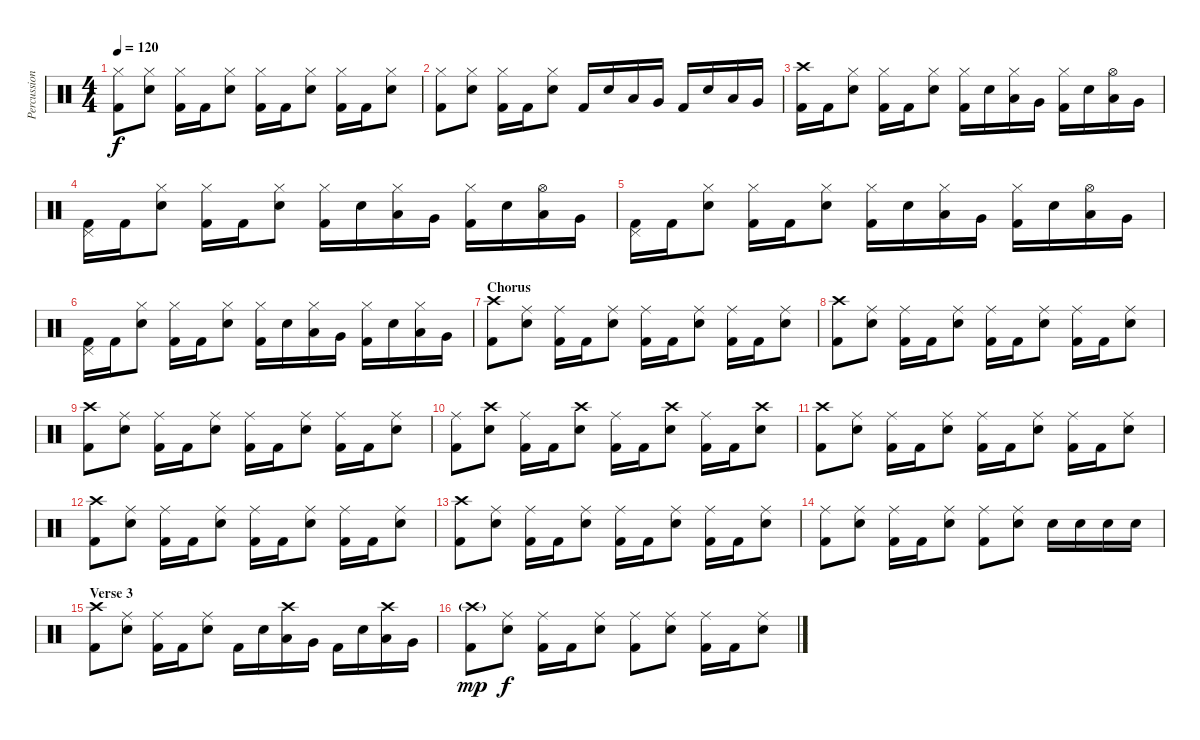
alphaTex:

\track ("Percussion" "Percussion") {instrument percussion}
\staff {score}
\articulation defaults
\ts (4 4)
\tempo 120
\clef neutral
\ks c
("Kick (hit) 2" "Hi-Hat (closed)").8{dy f} ("Snare (hit) 2" "Hi-Hat (closed)").8 ("Kick (hit) 2" "Hi-Hat (closed)").16 "Kick (hit) 2".16 ("Snare (hit) 2" "Hi-Hat (closed)").8 ("Kick (hit) 2" "Hi-Hat (closed)").16 "Kick (hit) 2".16 ("Snare (hit) 2" "Hi-Hat (closed)").8 ("Kick (hit) 2" "Hi-Hat (closed)").16 "Kick (hit) 2".16 ("Snare (hit) 2" "Hi-Hat (closed)").8 |
("Kick (hit) 2" "Hi-Hat (closed)").8 ("Snare (hit) 2" "Hi-Hat (closed)").8 ("Kick (hit) 2" "Hi-Hat (closed)").16 "Kick (hit) 2".16 ("Snare (hit) 2" "Hi-Hat (closed)").8 "Kick (hit) 2".16 "Snare (hit) 2".16 "Low Tom (hit)".16 "Very Low Tom (hit)".16 "Kick (hit) 2".16 "Snare (hit) 2".16 "Low Tom (hit)".16 "Very Low Tom (hit)".16 |
("Kick (hit) 2" "Crash high (hit)").16 "Kick (hit) 2".16 ("Snare (hit) 2" "Hi-Hat (closed)").8 ("Kick (hit) 2" "Hi-Hat (closed)").16 "Kick (hit) 2".16 ("Snare (hit) 2" "Hi-Hat (closed)").8 ("Kick (hit) 2" "Hi-Hat (closed)").16 "Snare (hit) 2".16 ("Low Tom (hit)" "Hi-Hat (closed)").16 "Very Low Tom (hit)".16 ("Kick (hit) 2" "Hi-Hat (closed)").16 "Snare (hit) 2".16 ("Low Tom (hit)" "Hi-Hat (open)").16 "Very Low Tom (hit)".16 |
("Kick (hit) 2" "Pedal Hi-Hat (hit)").16 "Kick (hit) 2".16 ("Snare (hit) 2" "Hi-Hat (closed)").8 ("Kick (hit) 2" "Hi-Hat (closed)").16 "Kick (hit) 2".16 ("Snare (hit) 2" "Hi-Hat (closed)").8 ("Kick (hit) 2" "Hi-Hat (closed)").16 "Snare (hit) 2".16 ("Low Tom (hit)" "Hi-Hat (closed)").16 "Very Low Tom (hit)".16 ("Kick (hit) 2" "Hi-Hat (closed)").16 "Snare (hit) 2".16 ("Low Tom (hit)" "Hi-Hat (open)").16 "Very Low Tom (hit)".16 |
("Kick (hit) 2" "Pedal Hi-Hat (hit)").16 "Kick (hit) 2".16 ("Snare (hit) 2" "Hi-Hat (closed)").8 ("Kick (hit) 2" "Hi-Hat (closed)").16 "Kick (hit) 2".16 ("Snare (hit) 2" "Hi-Hat (closed)").8 ("Kick (hit) 2" "Hi-Hat (closed)").16 "Snare (hit) 2".16 ("Low Tom (hit)" "Hi-Hat (closed)").16 "Very Low Tom (hit)".16 ("Kick (hit) 2" "Hi-Hat (closed)").16 "Snare (hit) 2".16 ("Low Tom (hit)" "Hi-Hat (open)").16 "Very Low Tom (hit)".16 |
("Kick (hit) 2" "Pedal Hi-Hat (hit)").16 "Kick (hit) 2".16 ("Snare (hit) 2" "Hi-Hat (closed)").8 ("Kick (hit) 2" "Hi-Hat (closed)").16 "Kick (hit) 2".16 ("Snare (hit) 2" "Hi-Hat (closed)").8 ("Kick (hit) 2" "Hi-Hat (closed)").16 "Snare (hit) 2".16 ("Low Tom (hit)" "Hi-Hat (closed)").16 "Very Low Tom (hit)".16 ("Kick (hit) 2" "Hi-Hat (closed)").16 "Snare (hit) 2".16 ("Low Tom (hit)" "Hi-Hat (closed)").16 "Very Low Tom (hit)".16 |
\section ("" "Chorus")
("Kick (hit) 2" "Crash high (hit)").8 ("Snare (hit) 2" "Ride (middle)").8 ("Kick (hit) 2" "Ride (middle)").16 "Kick (hit) 2".16 ("Snare (hit) 2" "Ride (middle)").8 ("Kick (hit) 2" "Ride (middle)").16 "Kick (hit) 2".16 ("Snare (hit) 2" "Ride (middle)").8 ("Kick (hit) 2" "Ride (middle)").16 "Kick (hit) 2".16 ("Snare (hit) 2" "Ride (middle)").8 |
("Kick (hit) 2" "Crash high (hit)").8 ("Snare (hit) 2" "Ride (middle)").8 ("Kick (hit) 2" "Ride (middle)").16 "Kick (hit) 2".16 ("Snare (hit) 2" "Ride (middle)").8 ("Kick (hit) 2" "Ride (middle)").16 "Kick (hit) 2".16 ("Snare (hit) 2" "Ride (middle)").8 ("Kick (hit) 2" "Ride (middle)").16 "Kick (hit) 2".16 ("Snare (hit) 2" "Ride (middle)").8 |
("Kick (hit) 2" "Crash high (hit)").8 ("Snare (hit) 2" "Ride (middle)").8 ("Kick (hit) 2" "Ride (middle)").16 "Kick (hit) 2".16 ("Snare (hit) 2" "Ride (middle)").8 ("Kick (hit) 2" "Ride (middle)").16 "Kick (hit) 2".16 ("Snare (hit) 2" "Ride (middle)").8 ("Kick (hit) 2" "Ride (middle)").16 "Kick (hit) 2".16 ("Snare (hit) 2" "Ride (middle)").8 |
("Kick (hit) 2" "Ride (middle)").8 ("Snare (hit) 2" "Crash high (hit)").8 ("Kick (hit) 2" "Ride (middle)").16 "Kick (hit) 2".16 ("Snare (hit) 2" "Crash high (hit)").8 ("Kick (hit) 2" "Ride (middle)").16 "Kick (hit) 2".16 ("Snare (hit) 2" "Crash high (hit)").8 ("Kick (hit) 2" "Ride (middle)").16 "Kick (hit) 2".16 ("Snare (hit) 2" "Crash high (hit)").8 |
("Kick (hit) 2" "Crash high (hit)").8 ("Snare (hit) 2" "Ride (middle)").8 ("Kick (hit) 2" "Ride (middle)").16 "Kick (hit) 2".16 ("Snare (hit) 2" "Ride (middle)").8 ("Kick (hit) 2" "Ride (middle)").16 "Kick (hit) 2".16 ("Snare (hit) 2" "Ride (middle)").8 ("Kick (hit) 2" "Ride (middle)").16 "Kick (hit) 2".16 ("Snare (hit) 2" "Ride (middle)").8 |
("Kick (hit) 2" "Crash high (hit)").8 ("Snare (hit) 2" "Ride (middle)").8 ("Kick (hit) 2" "Ride (middle)").16 "Kick (hit) 2".16 ("Snare (hit) 2" "Ride (middle)").8 ("Kick (hit) 2" "Ride (middle)").16 "Kick (hit) 2".16 ("Snare (hit) 2" "Ride (middle)").8 ("Kick (hit) 2" "Ride (middle)").16 "Kick (hit) 2".16 ("Snare (hit) 2" "Ride (middle)").8 |
("Kick (hit) 2" "Crash high (hit)").8 ("Snare (hit) 2" "Ride (middle)").8 ("Kick (hit) 2" "Ride (middle)").16 "Kick (hit) 2".16 ("Snare (hit) 2" "Ride (middle)").8 ("Kick (hit) 2" "Ride (middle)").16 "Kick (hit) 2".16 ("Snare (hit) 2" "Ride (middle)").8 ("Kick (hit) 2" "Ride (middle)").16 "Kick (hit) 2".16 ("Snare (hit) 2" "Ride (middle)").8 |
("Kick (hit) 2" "Ride (middle)").8 ("Snare (hit) 2" "Ride (middle)").8 ("Kick (hit) 2" "Ride (middle)").16 "Kick (hit) 2".16 ("Snare (hit) 2" "Ride (middle)").8 ("Kick (hit) 2" "Ride (middle)").8 ("Snare (hit) 2" "Ride (middle)").8 "Snare (hit) 2".16 "Snare (hit) 2".16 "Snare (hit) 2".16 "Snare (hit) 2".16 |
\section ("" "Verse 3")
("Kick (hit) 2" "Crash high (hit)").8 ("Snare (hit) 2" "Ride (middle)").8 ("Kick (hit) 2" "Ride (middle)").16 "Kick (hit) 2".16 ("Snare (hit) 2" "Ride (middle)").8 "Kick (hit) 2".16 "Snare (hit) 2".16 ("Low Tom (hit)" "Crash high (hit)").16 "Very Low Tom (hit)".16 "Kick (hit) 2".16 "Snare (hit) 2".16 ("Low Tom (hit)" "Crash high (hit)").16 "Very Low Tom (hit)".16 |
("Kick (hit) 2" "Crash high (hit)"{g}).8{dy mp} ("Snare (hit) 2" "Ride (middle)").8{dy f} ("Kick (hit) 2" "Ride (middle)").16 "Kick (hit) 2".16 ("Snare (hit) 2" "Ride (middle)").8 ("Kick (hit) 2" "Ride (middle)").8 ("Snare (hit) 2" "Ride (middle)").8 ("Kick (hit) 2" "Ride (middle)").16 "Kick (hit) 2".16 ("Snare (hit) 2" "Ride (middle)").8
